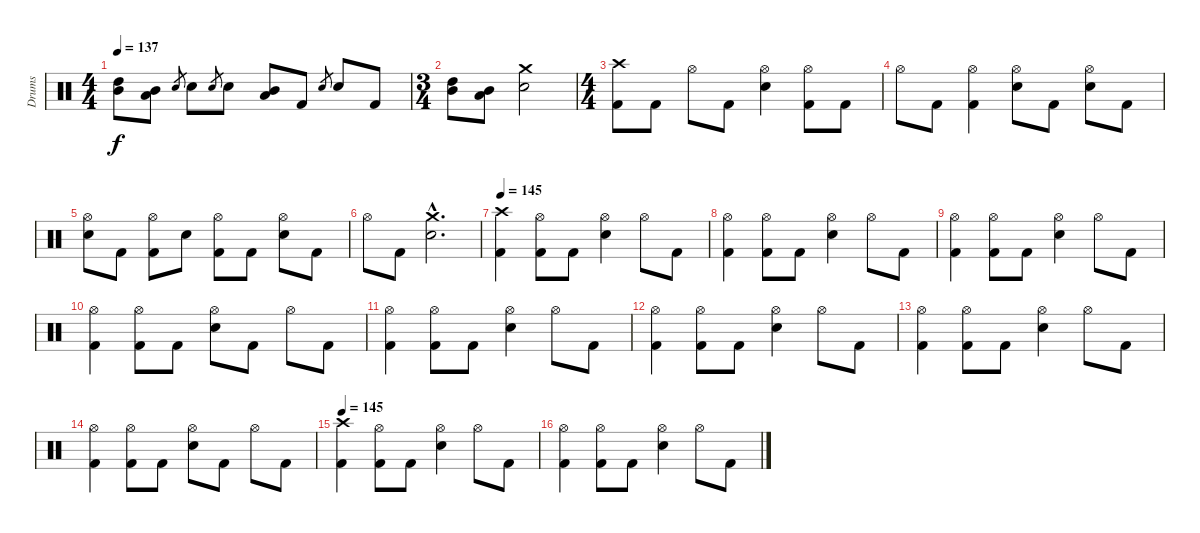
\track ("Drums" "Drums") {instrument percussion}
\staff {score}
\articulation defaults
\ts (4 4)
\tempo 137
\clef neutral
\ks c
("High Tom (hit)" "Mid Tom (hit)").8{dy f} ("Mid Tom (hit)" "Low Tom (hit)").8 "Electric Snare (hit)".8{gr} "Electric Snare (hit)".8 "Electric Snare (hit)".8{gr} "Electric Snare (hit)".8 ("Mid Tom (hit)" "Low Tom (hit)").8 "Kick (hit) 2".8 "Electric Snare (hit)".8{gr} "Electric Snare (hit)".8 "Kick (hit) 2".8 |
\ts (3 4)
("High Tom (hit)" "Mid Tom (hit)").8 ("Mid Tom (hit)" "Low Tom (hit)").8 ("Crash medium (hit)" "Electric Snare (hit)").2 |
\ts (4 4)
("Crash high (hit)" "Kick (hit) 2").8 "Kick (hit) 2".8 "Hi-Hat (open)".8 "Kick (hit) 2".8 ("Hi-Hat (open)" "Electric Snare (hit)").4 ("Hi-Hat (open)" "Kick (hit) 2").8 "Kick (hit) 2".8 |
"Hi-Hat (open)".8 "Kick (hit) 2".8 ("Hi-Hat (open)" "Kick (hit) 2").4 ("Hi-Hat (open)" "Electric Snare (hit)").8 "Kick (hit) 2".8 ("Hi-Hat (open)" "Electric Snare (hit)").8 "Kick (hit) 2".8 |
("Hi-Hat (open)" "Electric Snare (hit)").8 "Kick (hit) 2".8 ("Hi-Hat (open)" "Kick (hit) 2").8 "Electric Snare (hit)".8 ("Hi-Hat (open)" "Kick (hit) 2").8 "Kick (hit) 2".8 ("Hi-Hat (open)" "Electric Snare (hit)").8 "Kick (hit) 2".8 |
"Hi-Hat (open)".8 "Kick (hit) 2".8 ("Crash medium (hit)"{hac} "Electric Snare (hit)"{hac}).2{d} |
\tempo 145
("Crash high (hit)" "Kick (hit) 2").4 ("Hi-Hat (open)" "Kick (hit) 2").8 "Kick (hit) 2".8 ("Hi-Hat (open)" "Electric Snare (hit)").4 "Hi-Hat (open)".8 "Kick (hit) 2".8 |
("Hi-Hat (open)" "Kick (hit) 2").4 ("Hi-Hat (open)" "Kick (hit) 2").8 "Kick (hit) 2".8 ("Hi-Hat (open)" "Electric Snare (hit)").4 "Hi-Hat (open)".8 "Kick (hit) 2".8 |
("Hi-Hat (open)" "Kick (hit) 2").4 ("Hi-Hat (open)" "Kick (hit) 2").8 "Kick (hit) 2".8 ("Hi-Hat (open)" "Electric Snare (hit)").4 "Hi-Hat (open)".8 "Kick (hit) 2".8 |
("Hi-Hat (open)" "Kick (hit) 2").4 ("Hi-Hat (open)" "Kick (hit) 2").8 "Kick (hit) 2".8 ("Hi-Hat (open)" "Electric Snare (hit)").8 "Kick (hit) 2".8 "Hi-Hat (open)".8 "Kick (hit) 2".8 |
("Hi-Hat (open)" "Kick (hit) 2").4 ("Hi-Hat (open)" "Kick (hit) 2").8 "Kick (hit) 2".8 ("Hi-Hat (open)" "Electric Snare (hit)").4 "Hi-Hat (open)".8 "Kick (hit) 2".8 |
("Hi-Hat (open)" "Kick (hit) 2").4 ("Hi-Hat (open)" "Kick (hit) 2").8 "Kick (hit) 2".8 ("Hi-Hat (open)" "Electric Snare (hit)").4 "Hi-Hat (open)".8 "Kick (hit) 2".8 |
("Hi-Hat (open)" "Kick (hit) 2").4 ("Hi-Hat (open)" "Kick (hit) 2").8 "Kick (hit) 2".8 ("Hi-Hat (open)" "Electric Snare (hit)").4 "Hi-Hat (open)".8 "Kick (hit) 2".8 |
("Hi-Hat (open)" "Kick (hit) 2").4 ("Hi-Hat (open)" "Kick (hit) 2").8 "Kick (hit) 2".8 ("Hi-Hat (open)" "Electric Snare (hit)").8 "Kick (hit) 2".8 "Hi-Hat (open)".8 "Kick (hit) 2".8 |
\tempo 145
("Crash high (hit)" "Kick (hit) 2").4 ("Hi-Hat (open)" "Kick (hit) 2").8 "Kick (hit) 2".8 ("Hi-Hat (open)" "Electric Snare (hit)").4 "Hi-Hat (open)".8 "Kick (hit) 2".8 |
("Hi-Hat (open)" "Kick (hit) 2").4 ("Hi-Hat (open)" "Kick (hit) 2").8 "Kick (hit) 2".8 ("Hi-Hat (open)" "Electric Snare (hit)").4 "Hi-Hat (open)".8 "Kick (hit) 2".8
